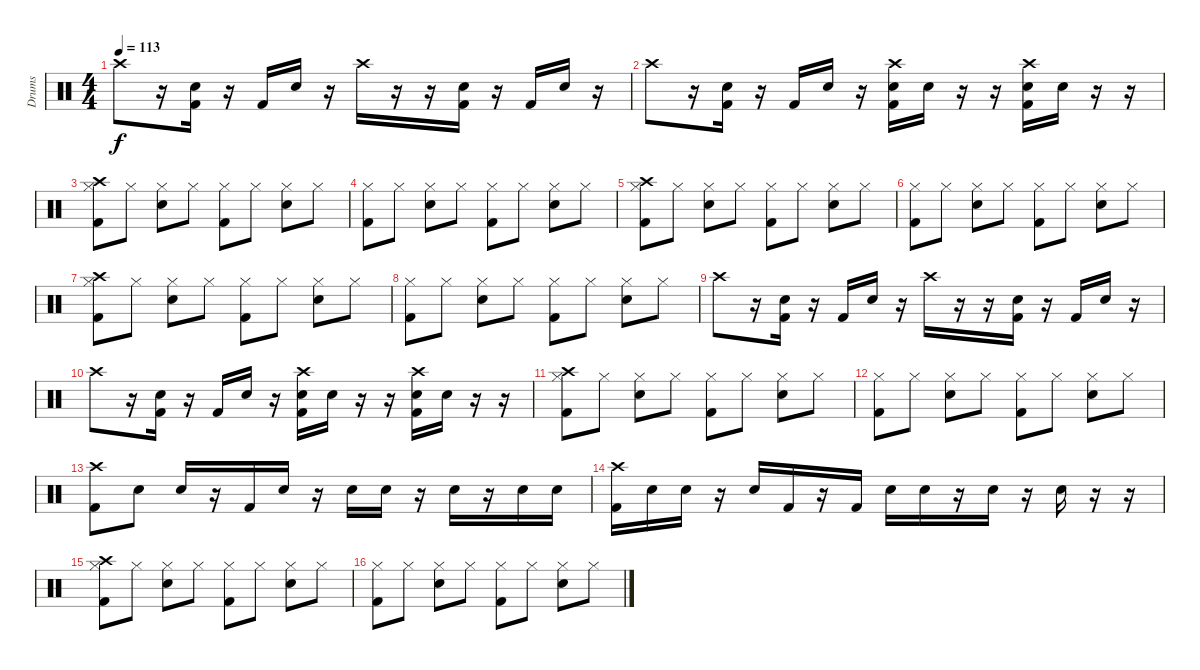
\track ("Drums" "Drums") {instrument percussion}
\staff {score}
\articulation defaults
\ts (4 4)
\tempo 113
\clef neutral
\ks c "Crash high (hit)".8{dy f}
r.16 ("Snare (hit) 2" "Kick (hit) 2").16 r.16 "Kick (hit) 2".16 "Snare (hit) 2".16 r.16 "Crash high (hit)".16 r.16 r.16 ("Snare (hit) 2" "Kick (hit) 2").16 r.16 "Kick (hit) 2".16 "Snare (hit) 2".16 r.16 |
"Crash high (hit)".8 r.16 ("Snare (hit) 2" "Kick (hit) 2").16 r.16 "Kick (hit) 2".16 "Snare (hit) 2".16 r.16 ("Crash high (hit)" "Snare (hit) 2" "Kick (hit) 2").16 "Snare (hit) 2".16 r.16 r.16 ("Crash high (hit)" "Snare (hit) 2" "Kick (hit) 2").16 "Snare (hit) 2".16 r.16 r.16 |
("Crash high (hit)" "Hi-Hat (closed)" "Kick (hit) 2").8 "Hi-Hat (closed)".8 ("Hi-Hat (closed)" "Snare (hit) 2").8 "Hi-Hat (closed)".8 ("Hi-Hat (closed)" "Kick (hit) 2").8 "Hi-Hat (closed)".8 ("Hi-Hat (closed)" "Snare (hit) 2").8 "Hi-Hat (closed)".8 |
("Hi-Hat (closed)" "Kick (hit) 2").8 "Hi-Hat (closed)".8 ("Hi-Hat (closed)" "Snare (hit) 2").8 "Hi-Hat (closed)".8 ("Hi-Hat (closed)" "Kick (hit) 2").8 "Hi-Hat (closed)".8 ("Hi-Hat (closed)" "Snare (hit) 2").8 "Hi-Hat (closed)".8 |
("Crash high (hit)" "Hi-Hat (closed)" "Kick (hit) 2").8 "Hi-Hat (closed)".8 ("Hi-Hat (closed)" "Snare (hit) 2").8 "Hi-Hat (closed)".8 ("Hi-Hat (closed)" "Kick (hit) 2").8 "Hi-Hat (closed)".8 ("Hi-Hat (closed)" "Snare (hit) 2").8 "Hi-Hat (closed)".8 |
("Hi-Hat (closed)" "Kick (hit) 2").8 "Hi-Hat (closed)".8 ("Hi-Hat (closed)" "Snare (hit) 2").8 "Hi-Hat (closed)".8 ("Hi-Hat (closed)" "Kick (hit) 2").8 "Hi-Hat (closed)".8 ("Hi-Hat (closed)" "Snare (hit) 2").8 "Hi-Hat (closed)".8 |
("Crash high (hit)" "Hi-Hat (closed)" "Kick (hit) 2").8 "Hi-Hat (closed)".8 ("Hi-Hat (closed)" "Snare (hit) 2").8 "Hi-Hat (closed)".8 ("Hi-Hat (closed)" "Kick (hit) 2").8 "Hi-Hat (closed)".8 ("Hi-Hat (closed)" "Snare (hit) 2").8 "Hi-Hat (closed)".8 |
("Hi-Hat (closed)" "Kick (hit) 2").8 "Hi-Hat (closed)".8 ("Hi-Hat (closed)" "Snare (hit) 2").8 "Hi-Hat (closed)".8 ("Hi-Hat (closed)" "Kick (hit) 2").8 "Hi-Hat (closed)".8 ("Hi-Hat (closed)" "Snare (hit) 2").8 "Hi-Hat (closed)".8 |
"Crash high (hit)".8 r.16 ("Snare (hit) 2" "Kick (hit) 2").16 r.16 "Kick (hit) 2".16 "Snare (hit) 2".16 r.16 "Crash high (hit)".16 r.16 r.16 ("Snare (hit) 2" "Kick (hit) 2").16 r.16 "Kick (hit) 2".16 "Snare (hit) 2".16 r.16 |
"Crash high (hit)".8 r.16 ("Snare (hit) 2" "Kick (hit) 2").16 r.16 "Kick (hit) 2".16 "Snare (hit) 2".16 r.16 ("Crash high (hit)" "Snare (hit) 2" "Kick (hit) 2").16 "Snare (hit) 2".16 r.16 r.16 ("Crash high (hit)" "Snare (hit) 2" "Kick (hit) 2").16 "Snare (hit) 2".16 r.16 r.16 |
("Crash high (hit)" "Hi-Hat (closed)" "Kick (hit) 2").8 "Hi-Hat (closed)".8 ("Hi-Hat (closed)" "Snare (hit) 2").8 "Hi-Hat (closed)".8 ("Hi-Hat (closed)" "Kick (hit) 2").8 "Hi-Hat (closed)".8 ("Hi-Hat (closed)" "Snare (hit) 2").8 "Hi-Hat (closed)".8 |
("Hi-Hat (closed)" "Kick (hit) 2").8 "Hi-Hat (closed)".8 ("Hi-Hat (closed)" "Snare (hit) 2").8 "Hi-Hat (closed)".8 ("Hi-Hat (closed)" "Kick (hit) 2").8 "Hi-Hat (closed)".8 ("Hi-Hat (closed)" "Snare (hit) 2").8 "Hi-Hat (closed)".8 |
("Crash high (hit)" "Kick (hit) 2").8 "Snare (hit) 2".8 "Snare (hit) 2".16 r.16 "Kick (hit) 2".16 "Snare (hit) 2".16 r.16 "Snare (hit) 2".16 "Snare (hit) 2".16 r.16 "Snare (hit) 2".16 r.16 "Snare (hit) 2".16 "Snare (hit) 2".16 |
("Crash high (hit)" "Kick (hit) 2").16 "Snare (hit) 2".16 "Snare (hit) 2".16 r.16 "Snare (hit) 2".16 "Kick (hit) 2".16 r.16 "Kick (hit) 2".16 "Snare (hit) 2".16 "Snare (hit) 2".16 r.16 "Snare (hit) 2".16 r.16 "Snare (hit) 2".16 r.16 r.16 |
("Crash high (hit)" "Hi-Hat (closed)" "Kick (hit) 2").8 "Hi-Hat (closed)".8 ("Hi-Hat (closed)" "Snare (hit) 2").8 "Hi-Hat (closed)".8 ("Hi-Hat (closed)" "Kick (hit) 2").8 "Hi-Hat (closed)".8 ("Hi-Hat (closed)" "Snare (hit) 2").8 "Hi-Hat (closed)".8 |
("Hi-Hat (closed)" "Kick (hit) 2").8 "Hi-Hat (closed)".8 ("Hi-Hat (closed)" "Snare (hit) 2").8 "Hi-Hat (closed)".8 ("Hi-Hat (closed)" "Kick (hit) 2").8 "Hi-Hat (closed)".8 ("Hi-Hat (closed)" "Snare (hit) 2").8 "Hi-Hat (closed)".8
